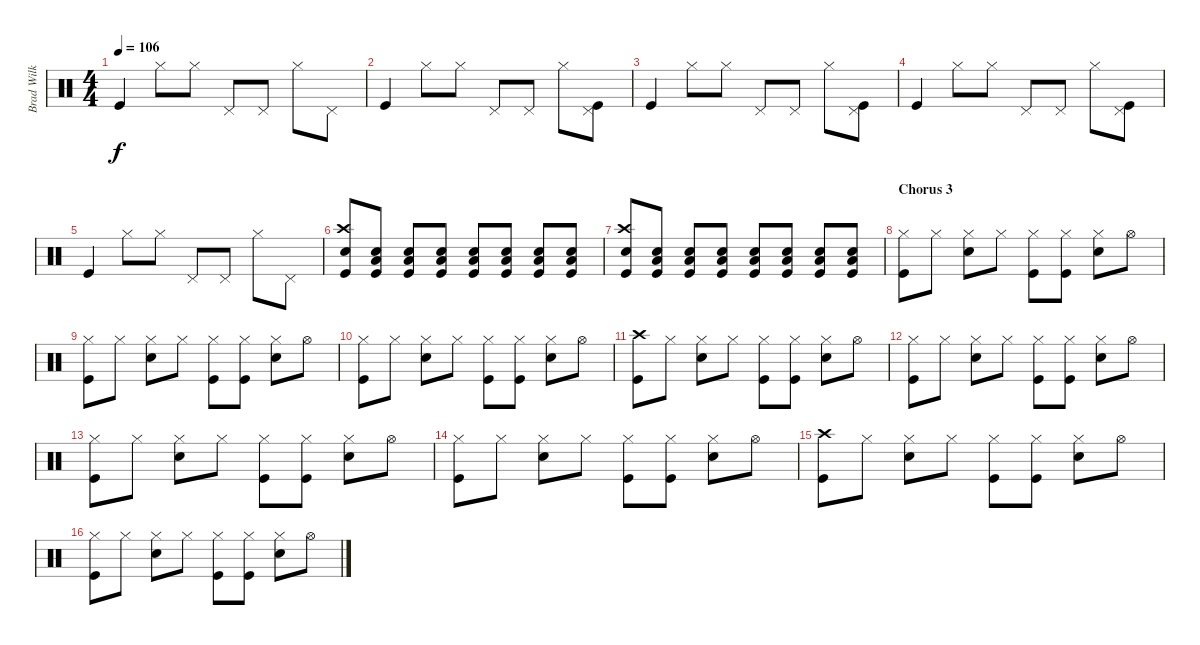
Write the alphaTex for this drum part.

\track ("Brad Wilk" "Brad Wilk") {instrument percussion}
\staff {score}
\articulation defaults
\ts (4 4)
\tempo 106
\clef neutral
\ks c "Kick (hit)".4{dy f} "Hi-Hat (closed)".8 "Hi-Hat (closed)".8 "Pedal Hi-Hat (hit)".8 "Pedal Hi-Hat (hit)".8 "Hi-Hat (closed)".8 "Pedal Hi-Hat (hit)".8
|
"Kick (hit)".4 "Hi-Hat (closed)".8 "Hi-Hat (closed)".8 "Pedal Hi-Hat (hit)".8 "Pedal Hi-Hat (hit)".8 "Hi-Hat (closed)".8 ("Pedal Hi-Hat (hit)" "Kick (hit)").8 |
"Kick (hit)".4 "Hi-Hat (closed)".8 "Hi-Hat (closed)".8 "Pedal Hi-Hat (hit)".8 "Pedal Hi-Hat (hit)".8 "Hi-Hat (closed)".8 ("Pedal Hi-Hat (hit)" "Kick (hit)").8 |
"Kick (hit)".4 "Hi-Hat (closed)".8 "Hi-Hat (closed)".8 "Pedal Hi-Hat (hit)".8 "Pedal Hi-Hat (hit)".8 "Hi-Hat (closed)".8 ("Pedal Hi-Hat (hit)" "Kick (hit)").8 |
"Kick (hit)".4 "Hi-Hat (closed)".8 "Hi-Hat (closed)".8 "Pedal Hi-Hat (hit)".8 "Pedal Hi-Hat (hit)".8 "Hi-Hat (closed)".8 "Pedal Hi-Hat (hit)".8 |
("Crash high (hit)" "Electric Snare (hit)" "Kick (hit)").8{volume 5} ("Low Tom (hit)" "Electric Snare (hit)" "Kick (hit)").8{volume 16} ("Low Tom (hit)" "Electric Snare (hit)" "Kick (hit)").8 ("Low Tom (hit)" "Electric Snare (hit)" "Kick (hit)").8 ("Low Tom (hit)" "Electric Snare (hit)" "Kick (hit)").8 ("Low Tom (hit)" "Electric Snare (hit)" "Kick (hit)").8 ("Low Tom (hit)" "Electric Snare (hit)" "Kick (hit)").8 ("Low Tom (hit)" "Electric Snare (hit)" "Kick (hit)").8 |
("Crash high (hit)" "Electric Snare (hit)" "Kick (hit)").8 ("Low Tom (hit)" "Electric Snare (hit)" "Kick (hit)").8 ("Low Tom (hit)" "Electric Snare (hit)" "Kick (hit)").8 ("Low Tom (hit)" "Electric Snare (hit)" "Kick (hit)").8 ("Low Tom (hit)" "Electric Snare (hit)" "Kick (hit)").8 ("Low Tom (hit)" "Electric Snare (hit)" "Kick (hit)").8 ("Low Tom (hit)" "Electric Snare (hit)" "Kick (hit)").8 ("Low Tom (hit)" "Electric Snare (hit)" "Kick (hit)").8 |
\section ("" "Chorus 3")
("Hi-Hat (closed)" "Kick (hit)").8 "Hi-Hat (closed)".8 ("Hi-Hat (closed)" "Electric Snare (hit)").8 "Hi-Hat (closed)".8 ("Hi-Hat (closed)" "Kick (hit)").8 ("Hi-Hat (closed)" "Kick (hit)").8 ("Hi-Hat (closed)" "Electric Snare (hit)").8 "Hi-Hat (open)".8 |
("Hi-Hat (closed)" "Kick (hit)").8 "Hi-Hat (closed)".8 ("Hi-Hat (closed)" "Electric Snare (hit)").8 "Hi-Hat (closed)".8 ("Hi-Hat (closed)" "Kick (hit)").8 ("Hi-Hat (closed)" "Kick (hit)").8 ("Hi-Hat (closed)" "Electric Snare (hit)").8 "Hi-Hat (open)".8 |
("Hi-Hat (closed)" "Kick (hit)").8 "Hi-Hat (closed)".8 ("Hi-Hat (closed)" "Electric Snare (hit)").8 "Hi-Hat (closed)".8 ("Hi-Hat (closed)" "Kick (hit)").8 ("Hi-Hat (closed)" "Kick (hit)").8 ("Hi-Hat (closed)" "Electric Snare (hit)").8 "Hi-Hat (open)".8 |
("Crash high (hit)" "Kick (hit)").8 "Hi-Hat (closed)".8 ("Hi-Hat (closed)" "Electric Snare (hit)").8 "Hi-Hat (closed)".8 ("Hi-Hat (closed)" "Kick (hit)").8 ("Hi-Hat (closed)" "Kick (hit)").8 ("Hi-Hat (closed)" "Electric Snare (hit)").8 "Hi-Hat (open)".8 |
("Hi-Hat (closed)" "Kick (hit)").8 "Hi-Hat (closed)".8 ("Hi-Hat (closed)" "Electric Snare (hit)").8 "Hi-Hat (closed)".8 ("Hi-Hat (closed)" "Kick (hit)").8 ("Hi-Hat (closed)" "Kick (hit)").8 ("Hi-Hat (closed)" "Electric Snare (hit)").8 "Hi-Hat (open)".8 |
("Hi-Hat (closed)" "Kick (hit)").8 "Hi-Hat (closed)".8 ("Hi-Hat (closed)" "Electric Snare (hit)").8 "Hi-Hat (closed)".8 ("Hi-Hat (closed)" "Kick (hit)").8 ("Hi-Hat (closed)" "Kick (hit)").8 ("Hi-Hat (closed)" "Electric Snare (hit)").8 "Hi-Hat (open)".8 |
("Hi-Hat (closed)" "Kick (hit)").8 "Hi-Hat (closed)".8 ("Hi-Hat (closed)" "Electric Snare (hit)").8 "Hi-Hat (closed)".8 ("Hi-Hat (closed)" "Kick (hit)").8 ("Hi-Hat (closed)" "Kick (hit)").8 ("Hi-Hat (closed)" "Electric Snare (hit)").8 "Hi-Hat (open)".8 |
("Crash high (hit)" "Kick (hit)").8 "Hi-Hat (closed)".8 ("Hi-Hat (closed)" "Electric Snare (hit)").8 "Hi-Hat (closed)".8 ("Hi-Hat (closed)" "Kick (hit)").8 ("Hi-Hat (closed)" "Kick (hit)").8 ("Hi-Hat (closed)" "Electric Snare (hit)").8 "Hi-Hat (open)".8 |
("Hi-Hat (closed)" "Kick (hit)").8 "Hi-Hat (closed)".8 ("Hi-Hat (closed)" "Electric Snare (hit)").8 "Hi-Hat (closed)".8 ("Hi-Hat (closed)" "Kick (hit)").8 ("Hi-Hat (closed)" "Kick (hit)").8 ("Hi-Hat (closed)" "Electric Snare (hit)").8 "Hi-Hat (open)".8
